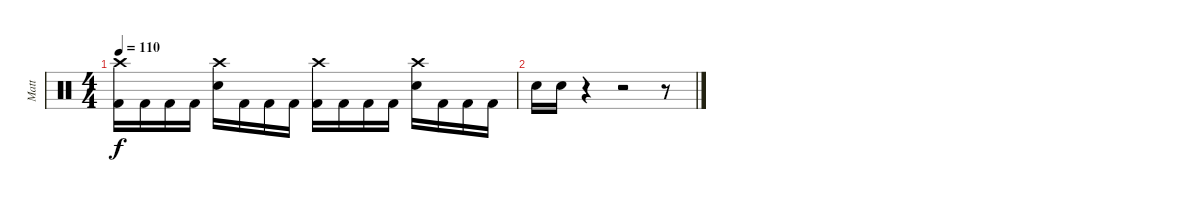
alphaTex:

\track ("Matt" "Matt") {instrument percussion}
\staff {score}
\articulation defaults
\ts (4 4)
\tempo 110
\clef neutral
\ks c
("Crash high (hit)" "Kick (hit) 2").16{dy f} "Kick (hit) 2".16 "Kick (hit) 2".16 "Kick (hit) 2".16 ("Crash high (hit)" "Snare (hit) 2").16 "Kick (hit) 2".16 "Kick (hit) 2".16 "Kick (hit) 2".16 ("Crash high (hit)" "Kick (hit) 2").16 "Kick (hit) 2".16 "Kick (hit) 2".16 "Kick (hit) 2".16 ("Crash high (hit)" "Snare (hit) 2").16 "Kick (hit) 2".16 "Kick (hit) 2".16 "Kick (hit) 2".16 |
"Snare (hit) 2".16 "Snare (hit) 2".16 r.4 r.2 r.8
